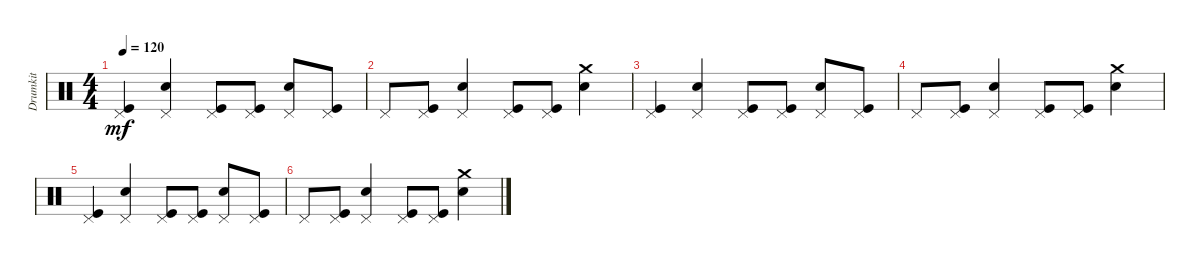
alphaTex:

\track ("Drumkit" "Drumkit") {instrument percussion}
\staff {score}
\articulation defaults
\ts (4 4)
\tempo 120
\clef neutral
\ks c
("Kick (hit)" "Pedal Hi-Hat (hit)").4{dy mf} ("Snare (hit) 2" "Pedal Hi-Hat (hit)").4 ("Kick (hit)" "Pedal Hi-Hat (hit)").8 ("Kick (hit)" "Pedal Hi-Hat (hit)").8 ("Snare (hit) 2" "Pedal Hi-Hat (hit)").8 ("Kick (hit)" "Pedal Hi-Hat (hit)").8 |
"Pedal Hi-Hat (hit)".8 ("Kick (hit)" "Pedal Hi-Hat (hit)").8 ("Snare (hit) 2" "Pedal Hi-Hat (hit)").4 ("Kick (hit)" "Pedal Hi-Hat (hit)").8 ("Kick (hit)" "Pedal Hi-Hat (hit)").8 ("Snare (hit) 2" "Crash medium (hit)").4 |
("Kick (hit)" "Pedal Hi-Hat (hit)").4 ("Snare (hit) 2" "Pedal Hi-Hat (hit)").4 ("Kick (hit)" "Pedal Hi-Hat (hit)").8 ("Kick (hit)" "Pedal Hi-Hat (hit)").8 ("Snare (hit) 2" "Pedal Hi-Hat (hit)").8 ("Kick (hit)" "Pedal Hi-Hat (hit)").8 |
"Pedal Hi-Hat (hit)".8 ("Kick (hit)" "Pedal Hi-Hat (hit)").8 ("Snare (hit) 2" "Pedal Hi-Hat (hit)").4 ("Kick (hit)" "Pedal Hi-Hat (hit)").8 ("Kick (hit)" "Pedal Hi-Hat (hit)").8 ("Snare (hit) 2" "Crash medium (hit)").4 |
("Kick (hit)" "Pedal Hi-Hat (hit)").4 ("Snare (hit) 2" "Pedal Hi-Hat (hit)").4 ("Kick (hit)" "Pedal Hi-Hat (hit)").8 ("Kick (hit)" "Pedal Hi-Hat (hit)").8 ("Snare (hit) 2" "Pedal Hi-Hat (hit)").8 ("Kick (hit)" "Pedal Hi-Hat (hit)").8 |
"Pedal Hi-Hat (hit)".8 ("Kick (hit)" "Pedal Hi-Hat (hit)").8 ("Snare (hit) 2" "Pedal Hi-Hat (hit)").4 ("Kick (hit)" "Pedal Hi-Hat (hit)").8 ("Kick (hit)" "Pedal Hi-Hat (hit)").8 ("Snare (hit) 2" "Crash medium (hit)").4
